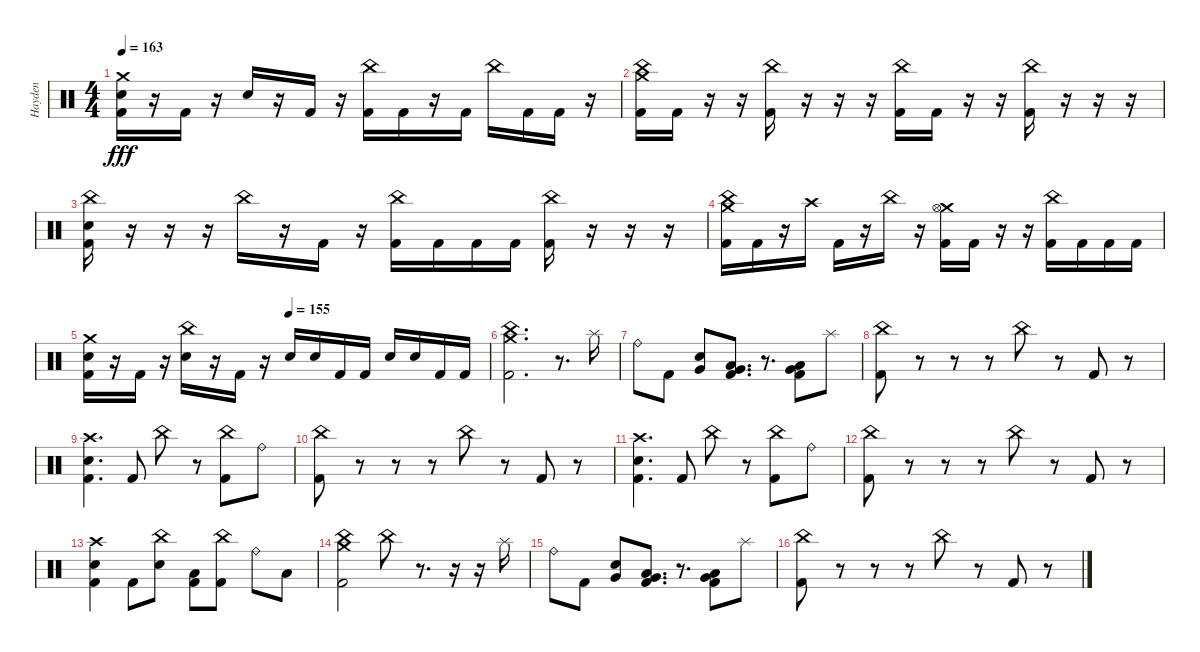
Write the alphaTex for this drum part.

\track ("Hayden" "Hayden") {instrument percussion}
\staff {score}
\articulation defaults
\ts (4 4)
\tempo 163
\clef neutral
\ks c
("Crash medium (hit)" "Snare (hit) 2" "Kick (hit) 2").16{dy fff} r.16 "Kick (hit) 2".16 r.16 "Electric Snare (hit)".16 r.16 "Kick (hit) 2".16 r.16 ("China (hit)" "Kick (hit) 2").16 "Kick (hit) 2".16 r.16 "Kick (hit) 2".16 "China (hit)".16 "Kick (hit) 2".16 "Kick (hit) 2".16 r.16 |
("Crash medium (hit)" "China (hit)" "Kick (hit) 2").16 "Kick (hit) 2".16 r.16 r.16 ("China (hit)" "Kick (hit) 2").16 r.16 r.16 r.16 ("China (hit)" "Kick (hit) 2").16 "Kick (hit) 2".16 r.16 r.16 ("China (hit)" "Kick (hit) 2").16 r.16 r.16 r.16 |
("China (hit)" "Snare (hit) 2" "Kick (hit) 2").16 r.16 r.16 r.16 "China (hit)".16 r.16 "Kick (hit) 2".16 r.16 ("China (hit)" "Kick (hit) 2").16 "Kick (hit) 2".16 "Kick (hit) 2".16 "Kick (hit) 2".16 ("China (hit)" "Kick (hit) 2").16 r.16 r.16 r.16 |
("Crash medium (hit)" "China (hit)" "Kick (hit) 2").16 "Kick (hit) 2".16 r.16 "Crash high (hit)".16 "Kick (hit) 2".16 r.16 "China (hit)".16 r.16 ("Crash medium (hit)" "Hi-Hat (open)" "Kick (hit) 2").16 "Kick (hit) 2".16 r.16 r.16 ("China (hit)" "Kick (hit) 2").16 "Kick (hit) 2".16 "Kick (hit) 2".16 "Kick (hit) 2".16 |
\tempo (155 0.5)
("Crash medium (hit)" "Electric Snare (hit)" "Kick (hit) 2").16 r.16 "Kick (hit) 2".16 r.16 ("China (hit)" "Electric Snare (hit)").16 r.16 "Kick (hit) 2".16 r.16 "Electric Snare (hit)".16 "Electric Snare (hit)".16 "Kick (hit) 2".16 "Kick (hit) 2".16 "Electric Snare (hit)".16 "Electric Snare (hit)".16 "Kick (hit) 2".16 "Kick (hit) 2".16 |
("China (hit)" "Crash medium (hit)" "Kick (hit) 2").2{d} r.8{d} "Splash (hit)".16 |
"Ride (bell)".8 "Kick (hit) 2".8 ("Very Low Tom (hit)" "Electric Snare (hit)").8 ("Kick (hit) 2" "Very Low Tom (hit)" "Low Tom (hit)").8{d} r.8{d} ("Kick (hit) 2" "Very Low Tom (hit)" "Low Floor Tom (hit)").8 "Splash (hit)".8 |
("China (hit)" "Kick (hit) 2").8 r.8 r.8 r.8 "China (hit)".8 r.8 "Kick (hit) 2".8 r.8 |
("Crash high (hit)" "Snare (hit) 2" "Kick (hit) 2").4{d} "Kick (hit) 2".8 "China (hit)".8 r.8 ("China (hit)" "Kick (hit) 2").8 "Ride (bell)".8 |
("China (hit)" "Kick (hit) 2").8 r.8 r.8 r.8 "China (hit)".8 r.8 "Kick (hit) 2".8 r.8 |
("Crash high (hit)" "Snare (hit) 2" "Kick (hit) 2").4{d} "Kick (hit) 2".8 "China (hit)".8 r.8 ("China (hit)" "Kick (hit) 2").8 "Ride (bell)".8 |
("China (hit)" "Kick (hit) 2").8 r.8 r.8 r.8 "China (hit)".8 r.8 "Kick (hit) 2".8 r.8 |
("Crash high (hit)" "Snare (hit) 2" "Kick (hit) 2").4 "Kick (hit) 2".8 ("China (hit)" "Electric Snare (hit)").8 ("Low Tom (hit)" "Kick (hit) 2").8 ("China (hit)" "Kick (hit) 2").8 "Ride (bell)".8 "Low Tom (hit)".8 |
("China (hit)" "Crash medium (hit)" "Kick (hit) 2").2 "China (hit)".8 r.8{d} r.16 r.16 "Splash (hit)".16 |
"Ride (bell)".8 "Kick (hit) 2".8 ("Very Low Tom (hit)" "Electric Snare (hit)").8 ("Kick (hit) 2" "Very Low Tom (hit)" "Low Tom (hit)").8{d} r.8{d} ("Kick (hit) 2" "Very Low Tom (hit)" "Low Floor Tom (hit)").8 "Splash (hit)".8 |
("China (hit)" "Kick (hit) 2").8 r.8 r.8 r.8 "China (hit)".8 r.8 "Kick (hit) 2".8 r.8
